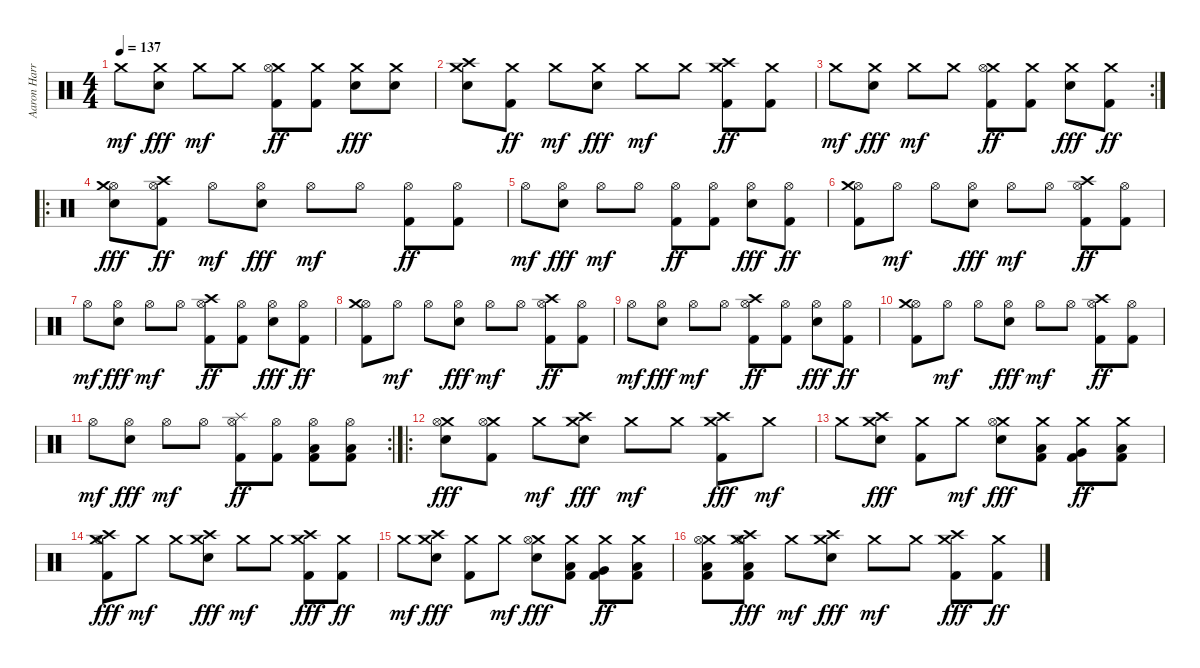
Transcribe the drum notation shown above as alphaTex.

\track ("Aaron Harris" "Aaron Harr") {instrument percussion}
\staff {score}
\articulation defaults
\ts (4 4)
\tempo 137
\clef neutral
\ks c "Crash medium (hit)".8{dy mf}
("Crash medium (hit)" "Electric Snare (hit)").8{dy fff} "Crash medium (hit)".8{dy mf} "Crash medium (hit)".8 ("Crash medium (hit)" "Hi-Hat (open)" "Kick (hit) 2").8{dy ff} ("Crash medium (hit)" "Kick (hit) 2").8 ("Crash medium (hit)" "Electric Snare (hit)").8{dy fff} ("Crash medium (hit)" "Electric Snare (hit)").8 |
("Crash medium (hit)" "Crash high (hit)" "Electric Snare (hit)").8 ("Crash medium (hit)" "Kick (hit) 2").8{dy ff} "Crash medium (hit)".8{dy mf} ("Crash medium (hit)" "Electric Snare (hit)").8{dy fff} "Crash medium (hit)".8{dy mf} "Crash medium (hit)".8 ("Crash medium (hit)" "Crash high (hit)" "Kick (hit) 2").8{dy ff} ("Crash medium (hit)" "Kick (hit) 2").8 |
\rc 2 "Crash medium (hit)".8{dy mf}
("Crash medium (hit)" "Electric Snare (hit)").8{dy fff} "Crash medium (hit)".8{dy mf} "Crash medium (hit)".8 ("Crash medium (hit)" "Hi-Hat (open)" "Kick (hit) 2").8{dy ff} ("Crash medium (hit)" "Kick (hit) 2").8 ("Crash medium (hit)" "Electric Snare (hit)").8{dy fff} ("Crash medium (hit)" "Kick (hit) 2").8{dy ff} |
\ro
("Hi-Hat (open)" "Crash medium (hit)" "Electric Snare (hit)").8{dy fff} ("Hi-Hat (open)" "Crash high (hit)" "Kick (hit) 2").8{dy ff} "Hi-Hat (open)".8{dy mf} ("Hi-Hat (open)" "Electric Snare (hit)").8{dy fff} "Hi-Hat (open)".8{dy mf} "Hi-Hat (open)".8 ("Hi-Hat (open)" "Kick (hit) 2").8{dy ff} ("Hi-Hat (open)" "Kick (hit) 2").8 |
"Hi-Hat (open)".8{dy mf} ("Hi-Hat (open)" "Electric Snare (hit)").8{dy fff} "Hi-Hat (open)".8{dy mf} "Hi-Hat (open)".8 ("Hi-Hat (open)" "Kick (hit) 2").8{dy ff} ("Hi-Hat (open)" "Kick (hit) 2").8 ("Hi-Hat (open)" "Electric Snare (hit)").8{dy fff} ("Hi-Hat (open)" "Kick (hit) 2").8{dy ff} |
("Hi-Hat (open)" "Crash medium (hit)" "Kick (hit) 2").8 "Hi-Hat (open)".8{dy mf} "Hi-Hat (open)".8 ("Hi-Hat (open)" "Electric Snare (hit)").8{dy fff} "Hi-Hat (open)".8{dy mf} "Hi-Hat (open)".8 ("Hi-Hat (open)" "Crash high (hit)" "Kick (hit) 2").8{dy ff} ("Hi-Hat (open)" "Kick (hit) 2").8 |
"Hi-Hat (open)".8{dy mf} ("Hi-Hat (open)" "Electric Snare (hit)").8{dy fff} "Hi-Hat (open)".8{dy mf} "Hi-Hat (open)".8 ("Hi-Hat (open)" "Crash high (hit)" "Kick (hit) 2").8{dy ff} ("Hi-Hat (open)" "Kick (hit) 2").8 ("Hi-Hat (open)" "Electric Snare (hit)").8{dy fff} ("Hi-Hat (open)" "Kick (hit) 2").8{dy ff} |
("Hi-Hat (open)" "Crash medium (hit)" "Kick (hit) 2").8 "Hi-Hat (open)".8{dy mf} "Hi-Hat (open)".8 ("Hi-Hat (open)" "Electric Snare (hit)").8{dy fff} "Hi-Hat (open)".8{dy mf} "Hi-Hat (open)".8 ("Hi-Hat (open)" "Crash high (hit)" "Kick (hit) 2").8{dy ff} ("Hi-Hat (open)" "Kick (hit) 2").8 |
"Hi-Hat (open)".8{dy mf} ("Hi-Hat (open)" "Electric Snare (hit)").8{dy fff} "Hi-Hat (open)".8{dy mf} "Hi-Hat (open)".8 ("Hi-Hat (open)" "Crash high (hit)" "Kick (hit) 2").8{dy ff} ("Hi-Hat (open)" "Kick (hit) 2").8 ("Hi-Hat (open)" "Electric Snare (hit)").8{dy fff} ("Hi-Hat (open)" "Kick (hit) 2").8{dy ff} |
("Hi-Hat (open)" "Crash medium (hit)" "Kick (hit) 2").8 "Hi-Hat (open)".8{dy mf} "Hi-Hat (open)".8 ("Hi-Hat (open)" "Electric Snare (hit)").8{dy fff} "Hi-Hat (open)".8{dy mf} "Hi-Hat (open)".8 ("Hi-Hat (open)" "Crash high (hit)" "Kick (hit) 2").8{dy ff} ("Hi-Hat (open)" "Kick (hit) 2").8 |
\rc 2 "Hi-Hat (open)".8{dy mf}
("Hi-Hat (open)" "Electric Snare (hit)").8{dy fff} "Hi-Hat (open)".8{dy mf} "Hi-Hat (open)".8 ("Hi-Hat (open)" "Splash (hit)" "Kick (hit) 2").8{dy ff} ("Hi-Hat (open)" "Kick (hit) 2").8 ("Hi-Hat (open)" "Low Tom (hit)" "Kick (hit) 2").8 ("Hi-Hat (open)" "Low Tom (hit)" "Kick (hit) 2").8 |
\ro
("Crash medium (hit)" "Hi-Hat (open)" "Electric Snare (hit)").8{dy fff} ("Crash medium (hit)" "Hi-Hat (open)" "Kick (hit) 2").8 "Crash medium (hit)".8{dy mf} ("Crash medium (hit)" "Crash high (hit)" "Electric Snare (hit)").8{dy fff} "Crash medium (hit)".8{dy mf} "Crash medium (hit)".8 ("Crash medium (hit)" "Crash high (hit)" "Kick (hit) 2").8{dy fff} "Crash medium (hit)".8{dy mf} |
"Crash medium (hit)".8 ("Crash medium (hit)" "Crash high (hit)" "Electric Snare (hit)").8{dy fff} ("Crash medium (hit)" "Kick (hit) 2").8 "Crash medium (hit)".8{dy mf} ("Crash medium (hit)" "Hi-Hat (open)" "Electric Snare (hit)").8{dy fff} ("Crash medium (hit)" "Low Tom (hit)" "Kick (hit) 2").8 ("Crash medium (hit)" "Very Low Tom (hit)" "Kick (hit) 2").8{dy ff} ("Crash medium (hit)" "Low Floor Tom (hit)" "Kick (hit) 2").8 |
("Crash medium (hit)" "Crash high (hit)" "Hi-Hat (open)" "Kick (hit) 2").8{dy fff} "Crash medium (hit)".8{dy mf} "Crash medium (hit)".8 ("Crash medium (hit)" "Crash high (hit)" "Electric Snare (hit)").8{dy fff} "Crash medium (hit)".8{dy mf} "Crash medium (hit)".8 ("Crash medium (hit)" "Crash high (hit)" "Kick (hit) 2").8{dy fff} ("Crash medium (hit)" "Kick (hit) 2").8{dy ff} |
"Crash medium (hit)".8{dy mf} ("Crash medium (hit)" "Crash high (hit)" "Electric Snare (hit)").8{dy fff} ("Crash medium (hit)" "Kick (hit) 2").8 "Crash medium (hit)".8{dy mf} ("Crash medium (hit)" "Hi-Hat (open)" "Electric Snare (hit)").8{dy fff} ("Crash medium (hit)" "Low Tom (hit)" "Kick (hit) 2").8 ("Crash medium (hit)" "Very Low Tom (hit)" "Kick (hit) 2").8{dy ff} ("Crash medium (hit)" "Low Floor Tom (hit)" "Kick (hit) 2").8 |
("Crash medium (hit)" "Hi-Hat (open)" "Low Floor Tom (hit)" "Kick (hit) 2").8 ("Crash medium (hit)" "Hi-Hat (open)" "Crash high (hit)" "Low Floor Tom (hit)" "Kick (hit) 2").8{dy fff} "Crash medium (hit)".8{dy mf} ("Crash medium (hit)" "Crash high (hit)" "Electric Snare (hit)").8{dy fff} "Crash medium (hit)".8{dy mf} "Crash medium (hit)".8 ("Crash medium (hit)" "Crash high (hit)" "Kick (hit) 2").8{dy fff} ("Crash medium (hit)" "Kick (hit) 2").8{dy ff}
